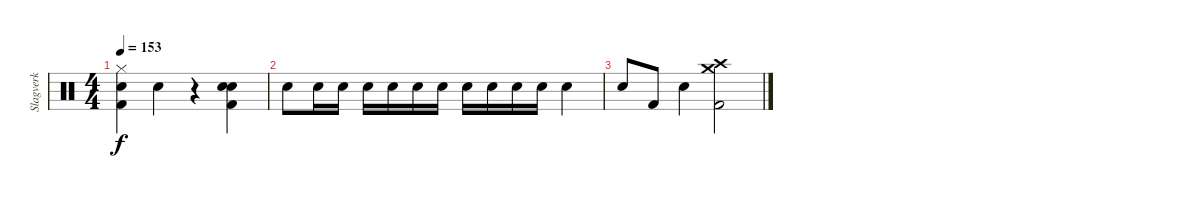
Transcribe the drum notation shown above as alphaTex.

\track ("Slagverk" "Slagverk") {instrument percussion}
\staff {score}
\articulation defaults
\ts (4 4)
\tempo 153
\clef neutral
\ks c
("Hi-Hat (closed)" "Electric Snare (hit)" "Kick (hit) 2").4{dy f} "Hand Clap (hit)".4 r.4 ("Hand Clap (hit)" "Electric Snare (hit)" "Kick (hit) 2").4 |
"Electric Snare (hit)".8 "Electric Snare (hit)".16 "Electric Snare (hit)".16 "Electric Snare (hit)".16 "Electric Snare (hit)".16 "Electric Snare (hit)".16 "Electric Snare (hit)".16 "Electric Snare (hit)".16 "Electric Snare (hit)".16 "Electric Snare (hit)".16 "Electric Snare (hit)".16 "Electric Snare (hit)".4 |
"Electric Snare (hit)".8 "Kick (hit) 2".8 "Electric Snare (hit)".4 ("Crash high (hit)" "Crash medium (hit)" "Kick (hit) 2").2
